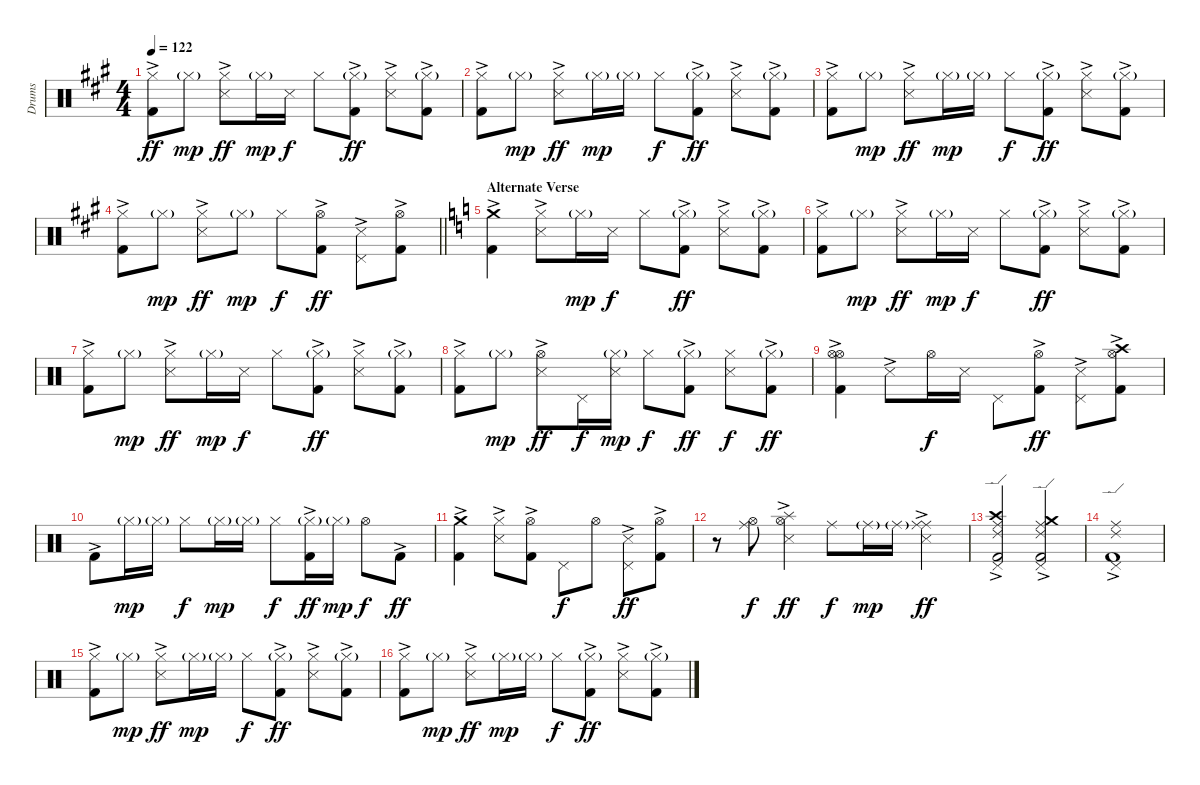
\track ("Drums" "Drums") {instrument percussion}
\staff {score}
\articulation defaults
\ts (4 4)
\tempo 122
\clef neutral
\ks a
("Hi-Hat (closed)" "Kick (hit) 2"{ac}).8{dy ff} "Hi-Hat (closed)"{g}.8{dy mp} ("Hi-Hat (closed)" "Snare (side stick) 3"{ac}).8{dy ff} "Hi-Hat (closed)"{g}.16{dy mp} "Snare (side stick) 3".16{dy f} "Hi-Hat (closed)".8 ("Hi-Hat (closed)"{g} "Kick (hit) 2"{ac}).8{dy ff} ("Hi-Hat (closed)" "Snare (side stick) 3"{ac}).8 ("Hi-Hat (closed)"{g} "Kick (hit) 2"{ac}).8 |
("Hi-Hat (closed)" "Kick (hit) 2"{ac}).8 "Hi-Hat (closed)"{g}.8{dy mp} ("Hi-Hat (closed)" "Snare (side stick) 3"{ac}).8{dy ff} "Hi-Hat (closed)"{g}.16{dy mp} "Hi-Hat (closed)"{g}.16 "Hi-Hat (closed)".8{dy f} ("Hi-Hat (closed)"{g} "Kick (hit) 2"{ac}).8{dy ff} ("Hi-Hat (closed)" "Snare (side stick) 3"{ac}).8 ("Hi-Hat (closed)"{g} "Kick (hit) 2"{ac}).8 |
("Hi-Hat (closed)" "Kick (hit) 2"{ac}).8 "Hi-Hat (closed)"{g}.8{dy mp} ("Hi-Hat (closed)" "Snare (side stick) 3"{ac}).8{dy ff} "Hi-Hat (closed)"{g}.16{dy mp} "Hi-Hat (closed)"{g}.16 "Hi-Hat (closed)".8{dy f} ("Hi-Hat (closed)"{g} "Kick (hit) 2"{ac}).8{dy ff} ("Hi-Hat (closed)" "Snare (side stick) 3"{ac}).8 ("Hi-Hat (closed)"{g} "Kick (hit) 2"{ac}).8 |
\barLineRight lightlight
("Hi-Hat (closed)" "Kick (hit) 2"{ac}).8 "Hi-Hat (closed)"{g}.8{dy mp} ("Hi-Hat (closed)" "Snare (side stick) 3"{ac}).8{dy ff} "Hi-Hat (closed)"{g}.8{dy mp} "Hi-Hat (closed)".8{dy f} ("Hi-Hat (open)" "Kick (hit) 2"{ac}).8{dy ff} ("Pedal Hi-Hat (hit)" "Snare (side stick) 3"{ac}).8 ("Hi-Hat (open)" "Kick (hit) 2"{ac}).8 |
\section ("" "Alternate Verse")
\ks c
("Crash medium (hit)" "Kick (hit) 2"{ac}).4 ("Hi-Hat (closed)" "Snare (side stick) 3"{ac}).8 "Hi-Hat (closed)"{g}.16{dy mp} "Snare (side stick) 3".16{dy f} "Hi-Hat (closed)".8 ("Hi-Hat (closed)"{g} "Kick (hit) 2"{ac}).8{dy ff} ("Hi-Hat (closed)" "Snare (side stick) 3"{ac}).8 ("Hi-Hat (closed)"{g} "Kick (hit) 2"{ac}).8 |
("Hi-Hat (closed)" "Kick (hit) 2"{ac}).8 "Hi-Hat (closed)"{g}.8{dy mp} ("Hi-Hat (closed)" "Snare (side stick) 3"{ac}).8{dy ff} "Hi-Hat (closed)"{g}.16{dy mp} "Snare (side stick) 3".16{dy f} "Hi-Hat (closed)".8 ("Hi-Hat (closed)"{g} "Kick (hit) 2"{ac}).8{dy ff} ("Hi-Hat (closed)" "Snare (side stick) 3"{ac}).8 ("Hi-Hat (closed)"{g} "Kick (hit) 2"{ac}).8 |
("Hi-Hat (closed)" "Kick (hit) 2"{ac}).8 "Hi-Hat (closed)"{g}.8{dy mp} ("Hi-Hat (closed)" "Snare (side stick) 3"{ac}).8{dy ff} "Hi-Hat (closed)"{g}.16{dy mp} "Snare (side stick) 3".16{dy f} "Hi-Hat (closed)".8 ("Hi-Hat (closed)"{g} "Kick (hit) 2"{ac}).8{dy ff} ("Hi-Hat (closed)" "Snare (side stick) 3"{ac}).8 ("Hi-Hat (closed)"{g} "Kick (hit) 2"{ac}).8 |
("Hi-Hat (closed)" "Kick (hit) 2"{ac}).8 "Hi-Hat (closed)"{g}.8{dy mp} ("Hi-Hat (open)" "Snare (side stick) 3"{ac}).8{dy ff} "Pedal Hi-Hat (hit)".16{dy f} ("Hi-Hat (closed)"{g} "Snare (side stick) 3").16{dy mp} "Hi-Hat (closed)".8{dy f} ("Hi-Hat (closed)"{g} "Kick (hit) 2"{ac}).8{dy ff} ("Hi-Hat (closed)" "Snare (side stick) 3").8{dy f} ("Hi-Hat (closed)"{g} "Kick (hit) 2"{ac}).8{dy ff} |
("Hi-Hat (open)" "Hi-Hat (open)" "Kick (hit) 2"{ac}).4 "Snare (side stick) 3"{ac}.8 "Hi-Hat (open)".16{dy f} "Snare (side stick) 3".16 "Pedal Hi-Hat (hit)".8 ("Hi-Hat (open)" "Kick (hit) 2"{ac}).8{dy ff} ("Pedal Hi-Hat (hit)" "Snare (side stick) 3"{ac}).8 ("Hi-Hat (open)" "Crash high (hit)" "Kick (hit) 2"{ac}).8 |
"Kick (hit) 2"{ac}.8 "Hi-Hat (closed)"{g}.16{dy mp} "Hi-Hat (closed)"{g}.16 "Hi-Hat (closed)".8{dy f} "Hi-Hat (closed)"{g}.16{dy mp} "Hi-Hat (closed)"{g}.16 "Hi-Hat (closed)".8{dy f} ("Hi-Hat (closed)"{g} "Kick (hit) 2"{ac}).16{dy ff} "Hi-Hat (closed)"{g}.16{dy mp} "Hi-Hat (open)".8{dy f} "Kick (hit) 2"{ac}.8{dy ff} |
("Crash medium (hit)" "Kick (hit) 2"{ac}).4 ("Hi-Hat (closed)" "Snare (side stick) 3"{ac}).8 ("Hi-Hat (open)" "Kick (hit) 2"{ac}).8 "Pedal Hi-Hat (hit)".8{dy f} "Hi-Hat (open)".8 ("Pedal Hi-Hat (hit)" "Snare (side stick) 3"{ac}).8{dy ff} ("Hi-Hat (open)" "Kick (hit) 2"{ac}).8 |
r.8 ("Hi-Hat (open)" "Ride (middle)").8{dy f} ("Hi-Hat (open)" "Splash (hit)" "Snare (side stick) 3"{ac}).4{dy ff} "Ride (middle)".8{dy f} "Ride (middle)"{g}.16{dy mp} "Ride (middle)"{g}.16 ("Ride (middle)" "Ride (middle)" "Snare (side stick) 3"{ac}).4{dy ff} |
("Pedal Hi-Hat (hit)" "Crash high (hit)" "Ride (middle)" "Ride (edge) 2" "Kick (hit) 2"{ac}).2 ("Pedal Hi-Hat (hit)" "Ride (middle)" "Crash medium (hit)" "Ride (edge) 2" "Kick (hit) 2"{ac}).2 |
("Pedal Hi-Hat (hit)" "Ride (middle)" "Ride (edge) 2" "Kick (hit) 2"{ac}).1 |
("Hi-Hat (closed)" "Kick (hit) 2"{ac}).8 "Hi-Hat (closed)"{g}.8{dy mp} ("Hi-Hat (closed)" "Snare (side stick) 3"{ac}).8{dy ff} "Hi-Hat (closed)"{g}.16{dy mp} "Hi-Hat (closed)"{g}.16 "Hi-Hat (closed)".8{dy f} ("Hi-Hat (closed)"{g} "Kick (hit) 2"{ac}).8{dy ff} ("Hi-Hat (closed)" "Snare (side stick) 3"{ac}).8 ("Hi-Hat (closed)"{g} "Kick (hit) 2"{ac}).8 |
("Hi-Hat (closed)" "Kick (hit) 2"{ac}).8 "Hi-Hat (closed)"{g}.8{dy mp} ("Hi-Hat (closed)" "Snare (side stick) 3"{ac}).8{dy ff} "Hi-Hat (closed)"{g}.16{dy mp} "Hi-Hat (closed)"{g}.16 "Hi-Hat (closed)".8{dy f} ("Hi-Hat (closed)"{g} "Kick (hit) 2"{ac}).8{dy ff} ("Hi-Hat (closed)" "Snare (side stick) 3"{ac}).8 ("Hi-Hat (closed)"{g} "Kick (hit) 2"{ac}).8
